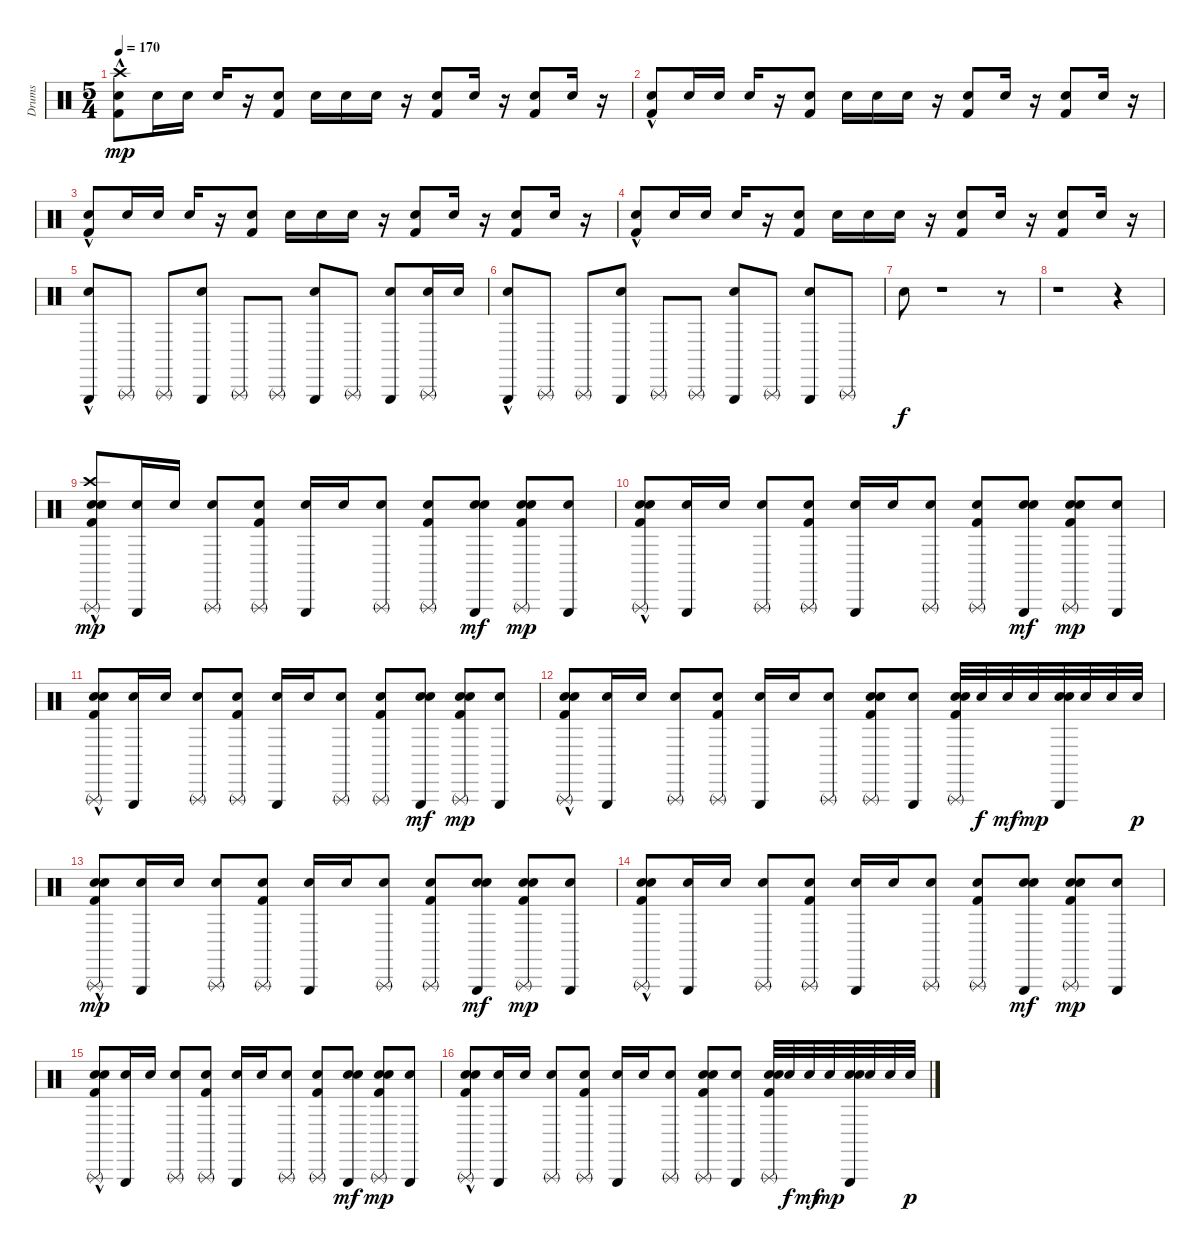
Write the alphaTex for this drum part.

\track ("Drums" "Drums") {instrument percussion}
\staff {score}
\articulation defaults
\ts (5 4)
\tempo 170
\clef neutral
\ks c
("Metronome (bell)" "Kick (hit) 2"{hac} "Crash high (hit)").8{dy mp} "Metronome (bell)".16 "Metronome (bell)".16 "Metronome (bell)".16 r.16 ("Metronome (bell)" "Kick (hit) 2").8 "Metronome (bell)".16 "Metronome (bell)".16 "Metronome (bell)".16 r.16 ("Metronome (bell)" "Kick (hit) 2").8 "Metronome (bell)".16 r.16 ("Metronome (bell)" "Kick (hit) 2").8 "Metronome (bell)".16 r.16 |
("Kick (hit) 2"{hac} "Metronome (bell)").8 "Metronome (bell)".16 "Metronome (bell)".16 "Metronome (bell)".16 r.16 ("Metronome (bell)" "Kick (hit) 2").8 "Metronome (bell)".16 "Metronome (bell)".16 "Metronome (bell)".16 r.16 ("Metronome (bell)" "Kick (hit) 2").8 "Metronome (bell)".16 r.16 ("Metronome (bell)" "Kick (hit) 2").8 "Metronome (bell)".16 r.16 |
("Kick (hit) 2"{hac} "Metronome (bell)").8 "Metronome (bell)".16 "Metronome (bell)".16 "Metronome (bell)".16 r.16 ("Metronome (bell)" "Kick (hit) 2").8 "Metronome (bell)".16 "Metronome (bell)".16 "Metronome (bell)".16 r.16 ("Metronome (bell)" "Kick (hit) 2").8 "Metronome (bell)".16 r.16 ("Metronome (bell)" "Kick (hit) 2").8 "Metronome (bell)".16 r.16 |
("Kick (hit) 2"{hac} "Metronome (bell)").8 "Metronome (bell)".16 "Metronome (bell)".16 "Metronome (bell)".16 r.16 ("Metronome (bell)" "Kick (hit) 2").8 "Metronome (bell)".16 "Metronome (bell)".16 "Metronome (bell)".16 r.16 ("Kick (hit) 2" "Metronome (bell)").8 "Metronome (bell)".16 r.16 ("Metronome (bell)" "Kick (hit) 2").8 "Metronome (bell)".16 r.16 |
("Triangle (hit)" "Electric Snare (hit)"{hac}).8 "Triangle (rnute)".8 "Triangle (rnute)".8 ("Triangle (hit)" "Electric Snare (hit)").8 "Triangle (rnute)".8 "Triangle (rnute)".8 ("Triangle (hit)" "Electric Snare (hit)").8 "Triangle (rnute)".8 ("Triangle (hit)" "Electric Snare (hit)").8 ("Triangle (rnute)" "Electric Snare (hit)").16 "Electric Snare (hit)".16 |
("Triangle (hit)" "Electric Snare (hit)"{hac}).8 "Triangle (rnute)".8 "Triangle (rnute)".8 ("Triangle (hit)" "Electric Snare (hit)").8 "Triangle (rnute)".8 "Triangle (rnute)".8 ("Triangle (hit)" "Electric Snare (hit)").8 "Triangle (rnute)".8 ("Triangle (hit)" "Electric Snare (hit)").8 "Triangle (rnute)".8 |
"Electric Snare (hit)".8{dy f} r.1 r.8 |
r.1 r.4 |
("Metronome (bell)" "Triangle (rnute)" "Electric Snare (hit)" "Crash high (hit)" "Kick (hit) 2"{hac}).8{dy mp} ("Triangle (hit)" "Metronome (bell)").16 "Metronome (bell)".16 ("Triangle (rnute)" "Metronome (bell)").8 ("Metronome (bell)" "Triangle (rnute)" "Kick (hit) 2").8 ("Triangle (hit)" "Metronome (bell)").16 "Metronome (bell)".16 ("Triangle (rnute)" "Metronome (bell)").8 ("Metronome (bell)" "Triangle (rnute)" "Kick (hit) 2").8 ("Triangle (hit)" "Metronome (bell)" "Electric Snare (hit)").8{dy mf} ("Metronome (bell)" "Triangle (rnute)" "Electric Snare (hit)" "Kick (hit) 2").8{dy mp} ("Triangle (hit)" "Metronome (bell)").8 |
("Metronome (bell)" "Triangle (rnute)" "Electric Snare (hit)" "Kick (hit) 2"{hac}).8 ("Triangle (hit)" "Metronome (bell)").16 "Metronome (bell)".16 ("Triangle (rnute)" "Metronome (bell)").8 ("Metronome (bell)" "Triangle (rnute)" "Kick (hit) 2").8 ("Triangle (hit)" "Metronome (bell)").16 "Metronome (bell)".16 ("Triangle (rnute)" "Metronome (bell)").8 ("Metronome (bell)" "Triangle (rnute)" "Kick (hit) 2").8 ("Triangle (hit)" "Metronome (bell)" "Electric Snare (hit)").8{dy mf} ("Metronome (bell)" "Triangle (rnute)" "Electric Snare (hit)" "Kick (hit) 2").8{dy mp} ("Triangle (hit)" "Metronome (bell)").8 |
("Metronome (bell)" "Triangle (rnute)" "Electric Snare (hit)" "Kick (hit) 2"{hac}).8 ("Triangle (hit)" "Metronome (bell)").16 "Metronome (bell)".16 ("Triangle (rnute)" "Metronome (bell)").8 ("Metronome (bell)" "Triangle (rnute)" "Kick (hit) 2").8 ("Triangle (hit)" "Metronome (bell)").16 "Metronome (bell)".16 ("Triangle (rnute)" "Metronome (bell)").8 ("Metronome (bell)" "Triangle (rnute)" "Kick (hit) 2").8 ("Triangle (hit)" "Metronome (bell)" "Electric Snare (hit)").8{dy mf} ("Metronome (bell)" "Triangle (rnute)" "Electric Snare (hit)" "Kick (hit) 2").8{dy mp} ("Triangle (hit)" "Metronome (bell)").8 |
("Metronome (bell)" "Triangle (rnute)" "Electric Snare (hit)" "Kick (hit) 2"{hac}).8 ("Triangle (hit)" "Metronome (bell)").16 "Metronome (bell)".16 ("Triangle (rnute)" "Metronome (bell)").8 ("Metronome (bell)" "Triangle (rnute)" "Kick (hit) 2").8 ("Triangle (hit)" "Metronome (bell)").16 "Metronome (bell)".16 ("Triangle (rnute)" "Metronome (bell)").8 ("Metronome (bell)" "Triangle (rnute)" "Electric Snare (hit)" "Kick (hit) 2").8 ("Triangle (hit)" "Metronome (bell)").8 ("Metronome (bell)" "Triangle (rnute)" "Electric Snare (hit)" "Kick (hit) 2").32 "Electric Snare (hit)".32{dy f} "Electric Snare (hit)".32{dy mf} "Electric Snare (hit)".32{dy mp} ("Triangle (hit)" "Metronome (bell)" "Electric Snare (hit)").32 "Electric Snare (hit)".32 "Electric Snare (hit)".32 "Electric Snare (hit)".32{dy p} |
("Metronome (bell)" "Triangle (rnute)" "Electric Snare (hit)" "Kick (hit) 2"{hac}).8{dy mp} ("Triangle (hit)" "Metronome (bell)").16 "Metronome (bell)".16 ("Triangle (rnute)" "Metronome (bell)").8 ("Metronome (bell)" "Triangle (rnute)" "Kick (hit) 2").8 ("Triangle (hit)" "Metronome (bell)").16 "Metronome (bell)".16 ("Triangle (rnute)" "Metronome (bell)").8 ("Metronome (bell)" "Triangle (rnute)" "Kick (hit) 2").8 ("Triangle (hit)" "Metronome (bell)" "Electric Snare (hit)").8{dy mf} ("Metronome (bell)" "Triangle (rnute)" "Electric Snare (hit)" "Kick (hit) 2").8{dy mp} ("Triangle (hit)" "Metronome (bell)").8 |
("Metronome (bell)" "Triangle (rnute)" "Electric Snare (hit)" "Kick (hit) 2"{hac}).8 ("Triangle (hit)" "Metronome (bell)").16 "Metronome (bell)".16 ("Triangle (rnute)" "Metronome (bell)").8 ("Metronome (bell)" "Triangle (rnute)" "Kick (hit) 2").8 ("Triangle (hit)" "Metronome (bell)").16 "Metronome (bell)".16 ("Triangle (rnute)" "Metronome (bell)").8 ("Metronome (bell)" "Triangle (rnute)" "Kick (hit) 2").8 ("Triangle (hit)" "Metronome (bell)" "Electric Snare (hit)").8{dy mf} ("Metronome (bell)" "Triangle (rnute)" "Electric Snare (hit)" "Kick (hit) 2").8{dy mp} ("Triangle (hit)" "Metronome (bell)").8 |
("Metronome (bell)" "Triangle (rnute)" "Electric Snare (hit)" "Kick (hit) 2"{hac}).8 ("Triangle (hit)" "Metronome (bell)").16 "Metronome (bell)".16 ("Triangle (rnute)" "Metronome (bell)").8 ("Metronome (bell)" "Triangle (rnute)" "Kick (hit) 2").8 ("Triangle (hit)" "Metronome (bell)").16 "Metronome (bell)".16 ("Triangle (rnute)" "Metronome (bell)").8 ("Metronome (bell)" "Triangle (rnute)" "Kick (hit) 2").8 ("Triangle (hit)" "Metronome (bell)" "Electric Snare (hit)").8{dy mf} ("Metronome (bell)" "Triangle (rnute)" "Electric Snare (hit)" "Kick (hit) 2").8{dy mp} ("Triangle (hit)" "Metronome (bell)").8 |
("Metronome (bell)" "Triangle (rnute)" "Electric Snare (hit)" "Kick (hit) 2"{hac}).8 ("Triangle (hit)" "Metronome (bell)").16 "Metronome (bell)".16 ("Triangle (rnute)" "Metronome (bell)").8 ("Metronome (bell)" "Triangle (rnute)" "Kick (hit) 2").8 ("Triangle (hit)" "Metronome (bell)").16 "Metronome (bell)".16 ("Triangle (rnute)" "Metronome (bell)").8 ("Metronome (bell)" "Triangle (rnute)" "Electric Snare (hit)" "Kick (hit) 2").8 ("Triangle (hit)" "Metronome (bell)").8 ("Metronome (bell)" "Triangle (rnute)" "Electric Snare (hit)" "Kick (hit) 2").32 "Electric Snare (hit)".32{dy f} "Electric Snare (hit)".32{dy mf} "Electric Snare (hit)".32{dy mp} ("Triangle (hit)" "Metronome (bell)" "Electric Snare (hit)").32 "Electric Snare (hit)".32 "Electric Snare (hit)".32 "Electric Snare (hit)".32{dy p}
